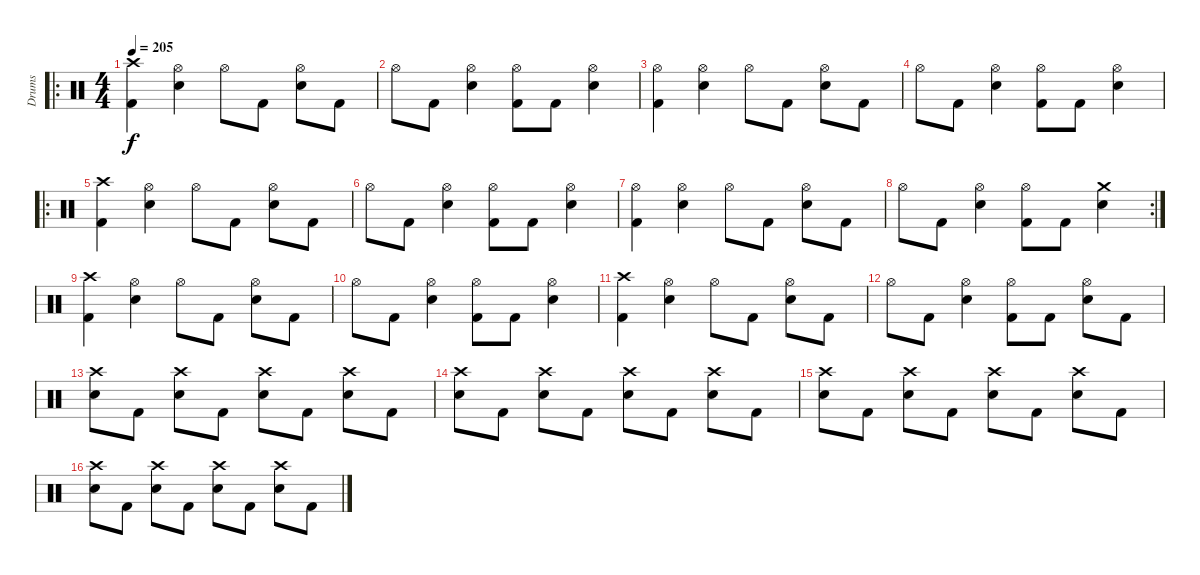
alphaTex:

\track ("Drums" "Drums") {instrument percussion}
\staff {score}
\articulation defaults
\ro
\ts (4 4)
\tempo 205
\clef neutral
\ks c
("Crash high (hit)" "Kick (hit) 2").4{dy f} ("Hi-Hat (open)" "Electric Snare (hit)").4 "Hi-Hat (open)".8 "Kick (hit) 2".8 ("Hi-Hat (open)" "Electric Snare (hit)").8 "Kick (hit) 2".8 |
"Hi-Hat (open)".8 "Kick (hit) 2".8 ("Hi-Hat (open)" "Electric Snare (hit)").4 ("Hi-Hat (open)" "Kick (hit) 2").8 "Kick (hit) 2".8 ("Hi-Hat (open)" "Electric Snare (hit)").4 |
("Hi-Hat (open)" "Kick (hit) 2").4 ("Hi-Hat (open)" "Electric Snare (hit)").4 "Hi-Hat (open)".8 "Kick (hit) 2".8 ("Hi-Hat (open)" "Electric Snare (hit)").8 "Kick (hit) 2".8 |
"Hi-Hat (open)".8 "Kick (hit) 2".8 ("Hi-Hat (open)" "Electric Snare (hit)").4 ("Hi-Hat (open)" "Kick (hit) 2").8 "Kick (hit) 2".8 ("Hi-Hat (open)" "Electric Snare (hit)").4 |
\ro
("Crash high (hit)" "Kick (hit) 2").4 ("Hi-Hat (open)" "Electric Snare (hit)").4 "Hi-Hat (open)".8 "Kick (hit) 2".8 ("Hi-Hat (open)" "Electric Snare (hit)").8 "Kick (hit) 2".8 |
"Hi-Hat (open)".8 "Kick (hit) 2".8 ("Hi-Hat (open)" "Electric Snare (hit)").4 ("Hi-Hat (open)" "Kick (hit) 2").8 "Kick (hit) 2".8 ("Hi-Hat (open)" "Electric Snare (hit)").4 |
("Hi-Hat (open)" "Kick (hit) 2").4 ("Hi-Hat (open)" "Electric Snare (hit)").4 "Hi-Hat (open)".8 "Kick (hit) 2".8 ("Hi-Hat (open)" "Electric Snare (hit)").8 "Kick (hit) 2".8 |
\rc 2 "Hi-Hat (open)".8 "Kick (hit) 2".8
("Hi-Hat (open)" "Electric Snare (hit)").4 ("Hi-Hat (open)" "Kick (hit) 2").8 "Kick (hit) 2".8 ("Crash medium (hit)" "Electric Snare (hit)").4 |
("Crash high (hit)" "Kick (hit) 2").4 ("Hi-Hat (open)" "Electric Snare (hit)").4 "Hi-Hat (open)".8 "Kick (hit) 2".8 ("Hi-Hat (open)" "Electric Snare (hit)").8 "Kick (hit) 2".8 |
"Hi-Hat (open)".8 "Kick (hit) 2".8 ("Hi-Hat (open)" "Electric Snare (hit)").4 ("Hi-Hat (open)" "Kick (hit) 2").8 "Kick (hit) 2".8 ("Hi-Hat (open)" "Electric Snare (hit)").4 |
("Crash high (hit)" "Kick (hit) 2").4 ("Hi-Hat (open)" "Electric Snare (hit)").4 "Hi-Hat (open)".8 "Kick (hit) 2".8 ("Hi-Hat (open)" "Electric Snare (hit)").8 "Kick (hit) 2".8 |
"Hi-Hat (open)".8 "Kick (hit) 2".8 ("Hi-Hat (open)" "Electric Snare (hit)").4 ("Hi-Hat (open)" "Kick (hit) 2").8 "Kick (hit) 2".8 ("Hi-Hat (open)" "Electric Snare (hit)").8 "Kick (hit) 2".8 |
("Crash high (hit)" "Electric Snare (hit)").8 "Kick (hit) 2".8 ("Crash high (hit)" "Electric Snare (hit)").8 "Kick (hit) 2".8 ("Crash high (hit)" "Electric Snare (hit)").8 "Kick (hit) 2".8 ("Crash high (hit)" "Electric Snare (hit)").8 "Kick (hit) 2".8 |
("Crash high (hit)" "Electric Snare (hit)").8 "Kick (hit) 2".8 ("Crash high (hit)" "Electric Snare (hit)").8 "Kick (hit) 2".8 ("Crash high (hit)" "Electric Snare (hit)").8 "Kick (hit) 2".8 ("Crash high (hit)" "Electric Snare (hit)").8 "Kick (hit) 2".8 |
("Crash high (hit)" "Electric Snare (hit)").8 "Kick (hit) 2".8 ("Crash high (hit)" "Electric Snare (hit)").8 "Kick (hit) 2".8 ("Crash high (hit)" "Electric Snare (hit)").8 "Kick (hit) 2".8 ("Crash high (hit)" "Electric Snare (hit)").8 "Kick (hit) 2".8 |
("Crash high (hit)" "Electric Snare (hit)").8 "Kick (hit) 2".8 ("Crash high (hit)" "Electric Snare (hit)").8 "Kick (hit) 2".8 ("Crash high (hit)" "Electric Snare (hit)").8 "Kick (hit) 2".8 ("Crash high (hit)" "Electric Snare (hit)").8 "Kick (hit) 2".8
